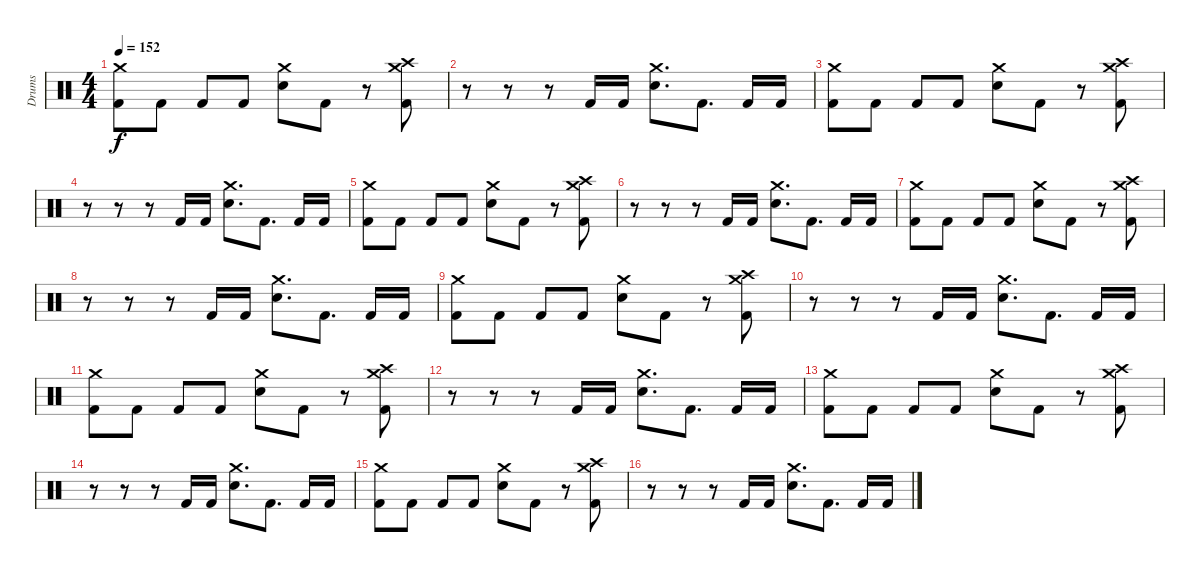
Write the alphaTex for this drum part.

\track ("Drums" "Drums") {instrument percussion}
\staff {score}
\articulation defaults
\ts (4 4)
\tempo 152
\clef neutral
\ks c
("Crash medium (hit)" "Kick (hit) 2").8{dy f} "Kick (hit) 2".8 "Kick (hit) 2".8 "Kick (hit) 2".8 ("Crash medium (hit)" "Electric Snare (hit)").8 "Kick (hit) 2".8 r.8 ("Crash high (hit)" "Crash medium (hit)" "Kick (hit) 2").8 |
r.8 r.8 r.8 "Kick (hit) 2".16 "Kick (hit) 2".16 ("Crash medium (hit)" "Electric Snare (hit)").8{d} "Kick (hit) 2".8{d} "Kick (hit) 2".16 "Kick (hit) 2".16 |
("Crash medium (hit)" "Kick (hit) 2").8 "Kick (hit) 2".8 "Kick (hit) 2".8 "Kick (hit) 2".8 ("Crash medium (hit)" "Electric Snare (hit)").8 "Kick (hit) 2".8 r.8 ("Crash high (hit)" "Crash medium (hit)" "Kick (hit) 2").8 |
r.8 r.8 r.8 "Kick (hit) 2".16 "Kick (hit) 2".16 ("Crash medium (hit)" "Electric Snare (hit)").8{d} "Kick (hit) 2".8{d} "Kick (hit) 2".16 "Kick (hit) 2".16 |
("Crash medium (hit)" "Kick (hit) 2").8 "Kick (hit) 2".8 "Kick (hit) 2".8 "Kick (hit) 2".8 ("Crash medium (hit)" "Electric Snare (hit)").8 "Kick (hit) 2".8 r.8 ("Crash high (hit)" "Crash medium (hit)" "Kick (hit) 2").8 |
r.8 r.8 r.8 "Kick (hit) 2".16 "Kick (hit) 2".16 ("Crash medium (hit)" "Electric Snare (hit)").8{d} "Kick (hit) 2".8{d} "Kick (hit) 2".16 "Kick (hit) 2".16 |
("Crash medium (hit)" "Kick (hit) 2").8 "Kick (hit) 2".8 "Kick (hit) 2".8 "Kick (hit) 2".8 ("Crash medium (hit)" "Electric Snare (hit)").8 "Kick (hit) 2".8 r.8 ("Crash high (hit)" "Crash medium (hit)" "Kick (hit) 2").8 |
r.8 r.8 r.8 "Kick (hit) 2".16 "Kick (hit) 2".16 ("Crash medium (hit)" "Electric Snare (hit)").8{d} "Kick (hit) 2".8{d} "Kick (hit) 2".16 "Kick (hit) 2".16 |
("Crash medium (hit)" "Kick (hit) 2").8 "Kick (hit) 2".8 "Kick (hit) 2".8 "Kick (hit) 2".8 ("Crash medium (hit)" "Electric Snare (hit)").8 "Kick (hit) 2".8 r.8 ("Crash high (hit)" "Crash medium (hit)" "Kick (hit) 2").8 |
r.8 r.8 r.8 "Kick (hit) 2".16 "Kick (hit) 2".16 ("Crash medium (hit)" "Electric Snare (hit)").8{d} "Kick (hit) 2".8{d} "Kick (hit) 2".16 "Kick (hit) 2".16 |
("Crash medium (hit)" "Kick (hit) 2").8 "Kick (hit) 2".8 "Kick (hit) 2".8 "Kick (hit) 2".8 ("Crash medium (hit)" "Electric Snare (hit)").8 "Kick (hit) 2".8 r.8 ("Crash high (hit)" "Crash medium (hit)" "Kick (hit) 2").8 |
r.8 r.8 r.8 "Kick (hit) 2".16 "Kick (hit) 2".16 ("Crash medium (hit)" "Electric Snare (hit)").8{d} "Kick (hit) 2".8{d} "Kick (hit) 2".16 "Kick (hit) 2".16 |
("Crash medium (hit)" "Kick (hit) 2").8 "Kick (hit) 2".8 "Kick (hit) 2".8 "Kick (hit) 2".8 ("Crash medium (hit)" "Electric Snare (hit)").8 "Kick (hit) 2".8 r.8 ("Crash high (hit)" "Crash medium (hit)" "Kick (hit) 2").8 |
r.8 r.8 r.8 "Kick (hit) 2".16 "Kick (hit) 2".16 ("Crash medium (hit)" "Electric Snare (hit)").8{d} "Kick (hit) 2".8{d} "Kick (hit) 2".16 "Kick (hit) 2".16 |
("Crash medium (hit)" "Kick (hit) 2").8 "Kick (hit) 2".8 "Kick (hit) 2".8 "Kick (hit) 2".8 ("Crash medium (hit)" "Electric Snare (hit)").8 "Kick (hit) 2".8 r.8 ("Crash high (hit)" "Crash medium (hit)" "Kick (hit) 2").8 |
r.8 r.8 r.8 "Kick (hit) 2".16 "Kick (hit) 2".16 ("Crash medium (hit)" "Electric Snare (hit)").8{d} "Kick (hit) 2".8{d} "Kick (hit) 2".16 "Kick (hit) 2".16
